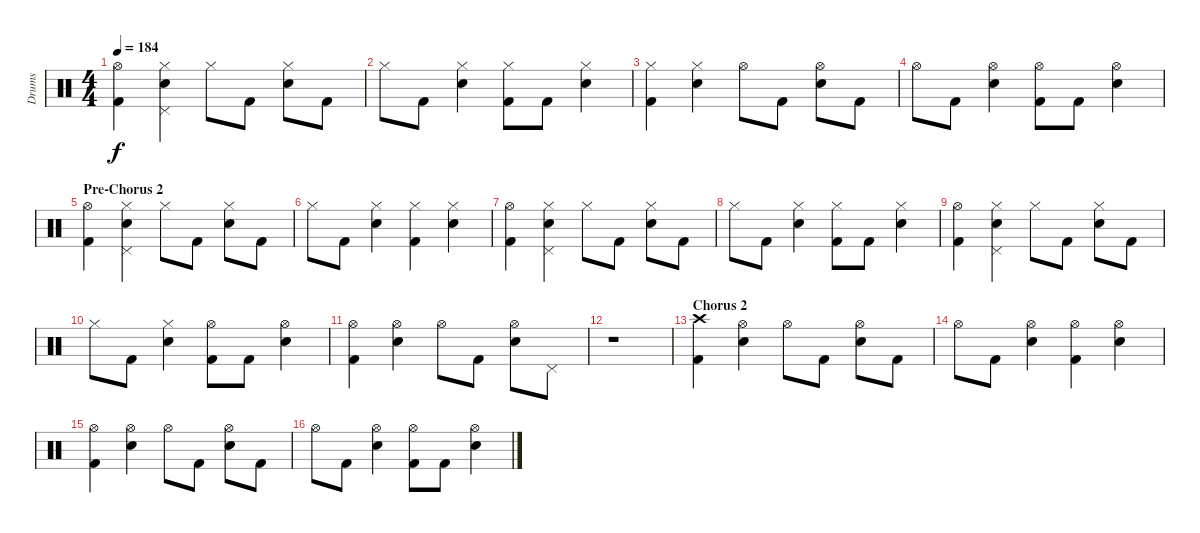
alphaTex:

\track ("Drums" "Drums") {instrument percussion}
\staff {score}
\articulation defaults
\ts (4 4)
\tempo 184
\clef neutral
\ks c
("Hi-Hat (open)" "Kick (hit) 2").4{dy f} ("Hi-Hat (closed)" "Snare (hit) 2" "Pedal Hi-Hat (hit)").4 "Hi-Hat (closed)".8 "Kick (hit) 2".8 ("Hi-Hat (closed)" "Snare (hit) 2").8 "Kick (hit) 2".8 |
"Hi-Hat (closed)".8 "Kick (hit) 2".8 ("Hi-Hat (closed)" "Snare (hit) 2").4 ("Hi-Hat (closed)" "Kick (hit) 2").8 "Kick (hit) 2".8 ("Hi-Hat (closed)" "Snare (hit) 2").4 |
("Hi-Hat (closed)" "Kick (hit) 2").4 ("Hi-Hat (closed)" "Snare (hit) 2").4 "Hi-Hat (open)".8 "Kick (hit) 2".8 ("Hi-Hat (open)" "Snare (hit) 2").8 "Kick (hit) 2".8 |
"Hi-Hat (open)".8 "Kick (hit) 2".8 ("Hi-Hat (open)" "Snare (hit) 2").4 ("Hi-Hat (open)" "Kick (hit) 2").8 "Kick (hit) 2".8 ("Hi-Hat (open)" "Snare (hit) 2").4 |
\section ("" "Pre-Chorus 2")
("Hi-Hat (open)" "Kick (hit) 2").4 ("Hi-Hat (closed)" "Snare (hit) 2" "Pedal Hi-Hat (hit)").4 "Hi-Hat (closed)".8 "Kick (hit) 2".8 ("Hi-Hat (closed)" "Snare (hit) 2").8 "Kick (hit) 2".8 |
"Hi-Hat (closed)".8 "Kick (hit) 2".8 ("Hi-Hat (closed)" "Snare (hit) 2").4 ("Hi-Hat (closed)" "Kick (hit) 2").4 ("Hi-Hat (closed)" "Snare (hit) 2").4 |
("Hi-Hat (open)" "Kick (hit) 2").4 ("Hi-Hat (closed)" "Snare (hit) 2" "Pedal Hi-Hat (hit)").4 "Hi-Hat (closed)".8 "Kick (hit) 2".8 ("Hi-Hat (closed)" "Snare (hit) 2").8 "Kick (hit) 2".8 |
"Hi-Hat (closed)".8 "Kick (hit) 2".8 ("Hi-Hat (closed)" "Snare (hit) 2").4 ("Hi-Hat (closed)" "Kick (hit) 2").8 "Kick (hit) 2".8 ("Hi-Hat (closed)" "Snare (hit) 2").4 |
("Hi-Hat (open)" "Kick (hit) 2").4 ("Hi-Hat (closed)" "Snare (hit) 2" "Pedal Hi-Hat (hit)").4 "Hi-Hat (closed)".8 "Kick (hit) 2".8 ("Hi-Hat (closed)" "Snare (hit) 2").8 "Kick (hit) 2".8 |
"Hi-Hat (closed)".8 "Kick (hit) 2".8 ("Hi-Hat (closed)" "Snare (hit) 2").4 ("Hi-Hat (open)" "Kick (hit) 2").8 "Kick (hit) 2".8 ("Hi-Hat (open)" "Snare (hit) 2").4 |
("Hi-Hat (open)" "Kick (hit) 2").4 ("Hi-Hat (open)" "Snare (hit) 2").4 "Hi-Hat (open)".8 "Kick (hit) 2".8 ("Hi-Hat (open)" "Snare (hit) 2").8 "Pedal Hi-Hat (hit)".8 |
r.1 |
\section ("" "Chorus 2")
("Crash high (hit)" "Kick (hit) 2").4 ("Hi-Hat (open)" "Snare (hit) 2").4 "Hi-Hat (open)".8 "Kick (hit) 2".8 ("Hi-Hat (open)" "Snare (hit) 2").8 "Kick (hit) 2".8 |
"Hi-Hat (open)".8 "Kick (hit) 2".8 ("Hi-Hat (open)" "Snare (hit) 2").4 ("Hi-Hat (open)" "Kick (hit) 2").4 ("Hi-Hat (open)" "Snare (hit) 2").4 |
("Hi-Hat (open)" "Kick (hit) 2").4 ("Hi-Hat (open)" "Snare (hit) 2").4 "Hi-Hat (open)".8 "Kick (hit) 2".8 ("Hi-Hat (open)" "Snare (hit) 2").8 "Kick (hit) 2".8 |
"Hi-Hat (open)".8 "Kick (hit) 2".8 ("Hi-Hat (open)" "Snare (hit) 2").4 ("Hi-Hat (open)" "Kick (hit) 2").8 "Kick (hit) 2".8 ("Hi-Hat (open)" "Snare (hit) 2").4
